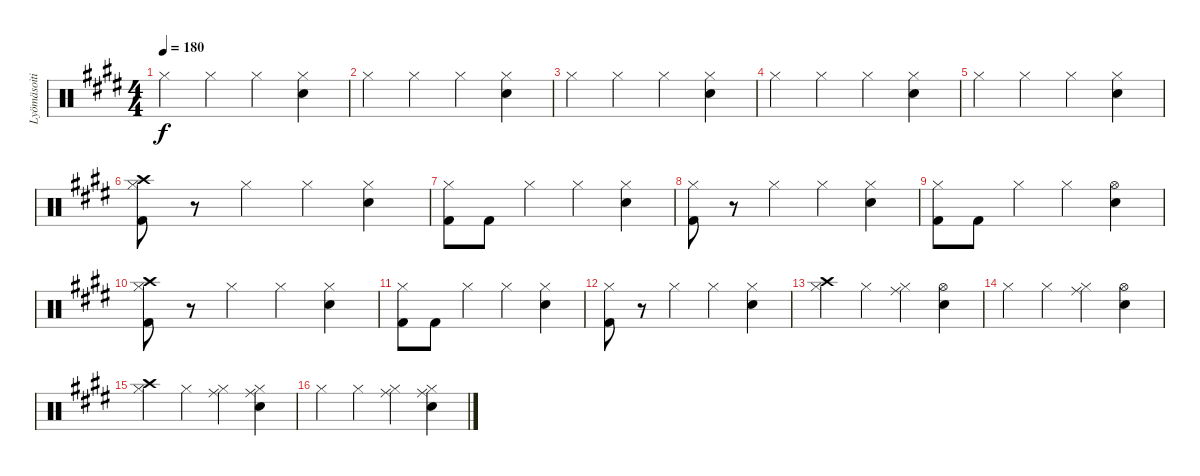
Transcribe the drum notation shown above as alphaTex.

\track ("Lyömäsoitin" "Lyömäsoiti") {instrument percussion}
\staff {score}
\articulation defaults
\ts (4 4)
\tempo 180
\clef neutral
\ks e "Hi-Hat (closed)".4{dy f} "Hi-Hat (closed)".4 "Hi-Hat (closed)".4
("Hi-Hat (closed)" "Electric Snare (hit)").4 |
"Hi-Hat (closed)".4 "Hi-Hat (closed)".4 "Hi-Hat (closed)".4 ("Hi-Hat (closed)" "Electric Snare (hit)").4 |
"Hi-Hat (closed)".4 "Hi-Hat (closed)".4 "Hi-Hat (closed)".4 ("Hi-Hat (closed)" "Electric Snare (hit)").4 |
"Hi-Hat (closed)".4 "Hi-Hat (closed)".4 "Hi-Hat (closed)".4 ("Hi-Hat (closed)" "Electric Snare (hit)").4 |
"Hi-Hat (closed)".4 "Hi-Hat (closed)".4 "Hi-Hat (closed)".4 ("Hi-Hat (closed)" "Electric Snare (hit)").4 |
("Crash high (hit)" "Hi-Hat (closed)" "Kick (hit) 2").8 r.8 "Hi-Hat (closed)".4 "Hi-Hat (closed)".4 ("Hi-Hat (closed)" "Electric Snare (hit)").4 |
("Hi-Hat (closed)" "Kick (hit) 2").8 "Kick (hit) 2".8 "Hi-Hat (closed)".4 "Hi-Hat (closed)".4 ("Hi-Hat (closed)" "Electric Snare (hit)").4 |
("Hi-Hat (closed)" "Kick (hit) 2").8 r.8 "Hi-Hat (closed)".4 "Hi-Hat (closed)".4 ("Hi-Hat (closed)" "Electric Snare (hit)").4 |
("Hi-Hat (closed)" "Kick (hit) 2").8 "Kick (hit) 2".8 "Hi-Hat (closed)".4 "Hi-Hat (closed)".4 ("Hi-Hat (open)" "Electric Snare (hit)").4 |
("Crash high (hit)" "Hi-Hat (closed)" "Kick (hit) 2").8 r.8 "Hi-Hat (closed)".4 "Hi-Hat (closed)".4 ("Hi-Hat (closed)" "Electric Snare (hit)").4 |
("Hi-Hat (closed)" "Kick (hit) 2").8 "Kick (hit) 2".8 "Hi-Hat (closed)".4 "Hi-Hat (closed)".4 ("Hi-Hat (closed)" "Electric Snare (hit)").4 |
("Hi-Hat (closed)" "Kick (hit) 2").8 r.8 "Hi-Hat (closed)".4 "Hi-Hat (closed)".4 ("Hi-Hat (closed)" "Electric Snare (hit)").4 |
("Crash high (hit)" "Hi-Hat (closed)").4 "Hi-Hat (closed)".4 ("Ride (middle)" "Hi-Hat (closed)").4 ("Hi-Hat (open)" "Electric Snare (hit)").4 |
"Hi-Hat (closed)".4 "Hi-Hat (closed)".4 ("Ride (middle)" "Hi-Hat (closed)").4 ("Hi-Hat (open)" "Electric Snare (hit)").4 |
("Crash high (hit)" "Hi-Hat (closed)").4 "Hi-Hat (closed)".4 ("Ride (middle)" "Hi-Hat (closed)").4 ("Ride (middle)" "Hi-Hat (closed)" "Electric Snare (hit)").4 |
"Hi-Hat (closed)".4 "Hi-Hat (closed)".4 ("Ride (middle)" "Hi-Hat (closed)").4 ("Ride (middle)" "Hi-Hat (closed)" "Electric Snare (hit)").4
